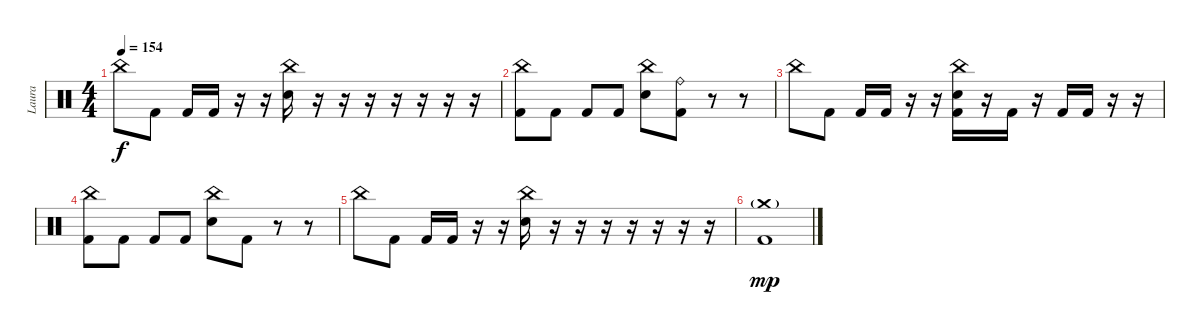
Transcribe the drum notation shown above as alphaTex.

\track ("Laura" "Laura") {instrument percussion}
\staff {score}
\articulation defaults
\ts (4 4)
\tempo 154
\clef neutral
\ks c "China (hit)".8{dy f} "Kick (hit) 2".8 "Kick (hit) 2".16 "Kick (hit) 2".16
r.16 r.16 ("China (hit)" "Electric Snare (hit)").16 r.16 r.16 r.16 r.16 r.16 r.16 r.16 |
("China (hit)" "Kick (hit) 2").8 "Kick (hit) 2".8 "Kick (hit) 2".8 "Kick (hit) 2".8 ("China (hit)" "Electric Snare (hit)").8 ("Ride (bell)" "Kick (hit) 2").8 r.8 r.8 |
"China (hit)".8 "Kick (hit) 2".8 "Kick (hit) 2".16 "Kick (hit) 2".16 r.16 r.16 ("China (hit)" "Electric Snare (hit)" "Kick (hit) 2").16 r.16 "Kick (hit) 2".16 r.16 "Kick (hit) 2".16 "Kick (hit) 2".16 r.16 r.16 |
("China (hit)" "Kick (hit) 2").8 "Kick (hit) 2".8 "Kick (hit) 2".8 "Kick (hit) 2".8 ("China (hit)" "Electric Snare (hit)").8 "Kick (hit) 2".8 r.8 r.8 |
"China (hit)".8 "Kick (hit) 2".8 "Kick (hit) 2".16 "Kick (hit) 2".16 r.16 r.16 ("China (hit)" "Electric Snare (hit)").16 r.16 r.16 r.16 r.16 r.16 r.16 r.16 |
("Crash medium (hit)"{g} "Kick (hit) 2").1{dy mp}
